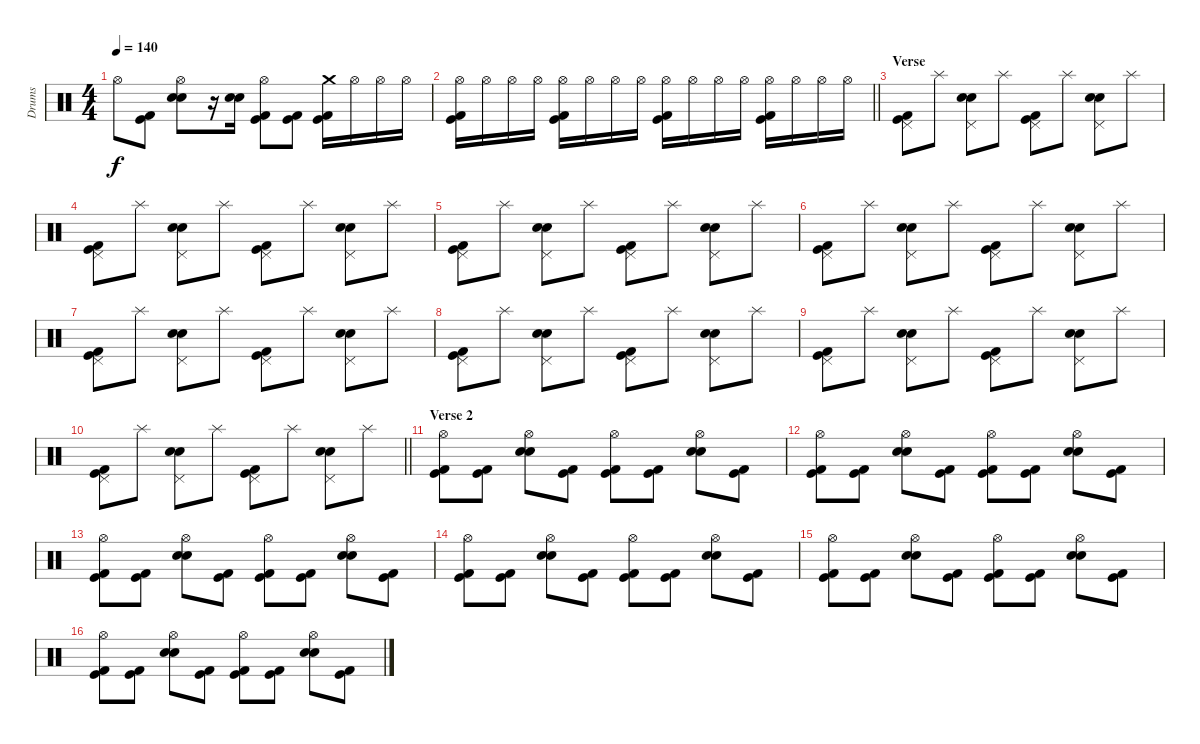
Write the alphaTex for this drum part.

\track ("Drums" "Drums") {instrument percussion}
\staff {score}
\articulation defaults
\ts (4 4)
\tempo 140
\clef neutral
\ks c "Hi-Hat (open)".8{dy f}
("Kick (hit) 2" "Kick (hit)").8 ("Hi-Hat (open)" "Electric Snare (hit)" "Electric Snare (hit)").8 r.16 ("Electric Snare (hit)" "Electric Snare (hit)").16 ("Hi-Hat (open)" "Kick (hit) 2" "Kick (hit)").8 ("Kick (hit) 2" "Kick (hit)").8 ("Crash medium (hit)" "Kick (hit) 2" "Kick (hit)").16 "Hi-Hat (open)".16 "Hi-Hat (open)".16 "Hi-Hat (open)".16 |
\barLineRight lightlight
("Hi-Hat (open)" "Kick (hit) 2" "Kick (hit)").16 "Hi-Hat (open)".16 "Hi-Hat (open)".16 "Hi-Hat (open)".16 ("Hi-Hat (open)" "Kick (hit) 2" "Kick (hit)").16 "Hi-Hat (open)".16 "Hi-Hat (open)".16 "Hi-Hat (open)".16 ("Hi-Hat (open)" "Kick (hit) 2" "Kick (hit)").16 "Hi-Hat (open)".16 "Hi-Hat (open)".16 "Hi-Hat (open)".16 ("Hi-Hat (open)" "Kick (hit) 2" "Kick (hit)").16 "Hi-Hat (open)".16 "Hi-Hat (open)".16 "Hi-Hat (open)".16 |
\section ("" "Verse")
("Pedal Hi-Hat (hit)" "Kick (hit) 2" "Kick (hit)").8 "Splash (hit)".8 ("Pedal Hi-Hat (hit)" "Electric Snare (hit)" "Electric Snare (hit)").8 "Splash (hit)".8 ("Pedal Hi-Hat (hit)" "Kick (hit) 2" "Kick (hit)").8 "Splash (hit)".8 ("Pedal Hi-Hat (hit)" "Electric Snare (hit)" "Electric Snare (hit)").8 "Splash (hit)".8 |
("Pedal Hi-Hat (hit)" "Kick (hit) 2" "Kick (hit)").8 "Splash (hit)".8 ("Pedal Hi-Hat (hit)" "Electric Snare (hit)" "Electric Snare (hit)").8 "Splash (hit)".8 ("Pedal Hi-Hat (hit)" "Kick (hit) 2" "Kick (hit)").8 "Splash (hit)".8 ("Pedal Hi-Hat (hit)" "Electric Snare (hit)" "Electric Snare (hit)").8 "Splash (hit)".8 |
("Pedal Hi-Hat (hit)" "Kick (hit) 2" "Kick (hit)").8 "Splash (hit)".8 ("Pedal Hi-Hat (hit)" "Electric Snare (hit)" "Electric Snare (hit)").8 "Splash (hit)".8 ("Pedal Hi-Hat (hit)" "Kick (hit) 2" "Kick (hit)").8 "Splash (hit)".8 ("Pedal Hi-Hat (hit)" "Electric Snare (hit)" "Electric Snare (hit)").8 "Splash (hit)".8 |
("Pedal Hi-Hat (hit)" "Kick (hit) 2" "Kick (hit)").8 "Splash (hit)".8 ("Pedal Hi-Hat (hit)" "Electric Snare (hit)" "Electric Snare (hit)").8 "Splash (hit)".8 ("Pedal Hi-Hat (hit)" "Kick (hit) 2" "Kick (hit)").8 "Splash (hit)".8 ("Pedal Hi-Hat (hit)" "Electric Snare (hit)" "Electric Snare (hit)").8 "Splash (hit)".8 |
("Pedal Hi-Hat (hit)" "Kick (hit) 2" "Kick (hit)").8 "Splash (hit)".8 ("Pedal Hi-Hat (hit)" "Electric Snare (hit)" "Electric Snare (hit)").8 "Splash (hit)".8 ("Pedal Hi-Hat (hit)" "Kick (hit) 2" "Kick (hit)").8 "Splash (hit)".8 ("Pedal Hi-Hat (hit)" "Electric Snare (hit)" "Electric Snare (hit)").8 "Splash (hit)".8 |
("Pedal Hi-Hat (hit)" "Kick (hit) 2" "Kick (hit)").8 "Splash (hit)".8 ("Pedal Hi-Hat (hit)" "Electric Snare (hit)" "Electric Snare (hit)").8 "Splash (hit)".8 ("Pedal Hi-Hat (hit)" "Kick (hit) 2" "Kick (hit)").8 "Splash (hit)".8 ("Pedal Hi-Hat (hit)" "Electric Snare (hit)" "Electric Snare (hit)").8 "Splash (hit)".8 |
("Pedal Hi-Hat (hit)" "Kick (hit) 2" "Kick (hit)").8 "Splash (hit)".8 ("Pedal Hi-Hat (hit)" "Electric Snare (hit)" "Electric Snare (hit)").8 "Splash (hit)".8 ("Pedal Hi-Hat (hit)" "Kick (hit) 2" "Kick (hit)").8 "Splash (hit)".8 ("Pedal Hi-Hat (hit)" "Electric Snare (hit)" "Electric Snare (hit)").8 "Splash (hit)".8 |
\barLineRight lightlight
("Pedal Hi-Hat (hit)" "Kick (hit) 2" "Kick (hit)").8 "Splash (hit)".8 ("Pedal Hi-Hat (hit)" "Electric Snare (hit)" "Electric Snare (hit)").8 "Splash (hit)".8 ("Pedal Hi-Hat (hit)" "Kick (hit) 2" "Kick (hit)").8 "Splash (hit)".8 ("Pedal Hi-Hat (hit)" "Electric Snare (hit)" "Electric Snare (hit)").8 "Splash (hit)".8 |
\section ("" "Verse 2")
("Hi-Hat (open)" "Kick (hit) 2" "Kick (hit)").8 ("Kick (hit) 2" "Kick (hit)").8 ("Hi-Hat (open)" "Electric Snare (hit)" "Electric Snare (hit)").8 ("Kick (hit)" "Kick (hit) 2").8 ("Hi-Hat (open)" "Kick (hit) 2" "Kick (hit)").8 ("Kick (hit) 2" "Kick (hit)").8 ("Hi-Hat (open)" "Electric Snare (hit)" "Electric Snare (hit)").8 ("Kick (hit)" "Kick (hit) 2").8 |
("Hi-Hat (open)" "Kick (hit) 2" "Kick (hit)").8 ("Kick (hit) 2" "Kick (hit)").8 ("Hi-Hat (open)" "Electric Snare (hit)" "Electric Snare (hit)").8 ("Kick (hit)" "Kick (hit) 2").8 ("Hi-Hat (open)" "Kick (hit) 2" "Kick (hit)").8 ("Kick (hit) 2" "Kick (hit)").8 ("Hi-Hat (open)" "Electric Snare (hit)" "Electric Snare (hit)").8 ("Kick (hit)" "Kick (hit) 2").8 |
("Hi-Hat (open)" "Kick (hit) 2" "Kick (hit)").8 ("Kick (hit) 2" "Kick (hit)").8 ("Hi-Hat (open)" "Electric Snare (hit)" "Electric Snare (hit)").8 ("Kick (hit)" "Kick (hit) 2").8 ("Hi-Hat (open)" "Kick (hit) 2" "Kick (hit)").8 ("Kick (hit) 2" "Kick (hit)").8 ("Hi-Hat (open)" "Electric Snare (hit)" "Electric Snare (hit)").8 ("Kick (hit)" "Kick (hit) 2").8 |
("Hi-Hat (open)" "Kick (hit) 2" "Kick (hit)").8 ("Kick (hit) 2" "Kick (hit)").8 ("Hi-Hat (open)" "Electric Snare (hit)" "Electric Snare (hit)").8 ("Kick (hit)" "Kick (hit) 2").8 ("Hi-Hat (open)" "Kick (hit) 2" "Kick (hit)").8 ("Kick (hit) 2" "Kick (hit)").8 ("Hi-Hat (open)" "Electric Snare (hit)" "Electric Snare (hit)").8 ("Kick (hit)" "Kick (hit) 2").8 |
("Hi-Hat (open)" "Kick (hit) 2" "Kick (hit)").8 ("Kick (hit) 2" "Kick (hit)").8 ("Hi-Hat (open)" "Electric Snare (hit)" "Electric Snare (hit)").8 ("Kick (hit)" "Kick (hit) 2").8 ("Hi-Hat (open)" "Kick (hit) 2" "Kick (hit)").8 ("Kick (hit) 2" "Kick (hit)").8 ("Hi-Hat (open)" "Electric Snare (hit)" "Electric Snare (hit)").8 ("Kick (hit)" "Kick (hit) 2").8 |
("Hi-Hat (open)" "Kick (hit) 2" "Kick (hit)").8 ("Kick (hit) 2" "Kick (hit)").8 ("Hi-Hat (open)" "Electric Snare (hit)" "Electric Snare (hit)").8 ("Kick (hit)" "Kick (hit) 2").8 ("Hi-Hat (open)" "Kick (hit) 2" "Kick (hit)").8 ("Kick (hit) 2" "Kick (hit)").8 ("Hi-Hat (open)" "Electric Snare (hit)" "Electric Snare (hit)").8 ("Kick (hit)" "Kick (hit) 2").8
